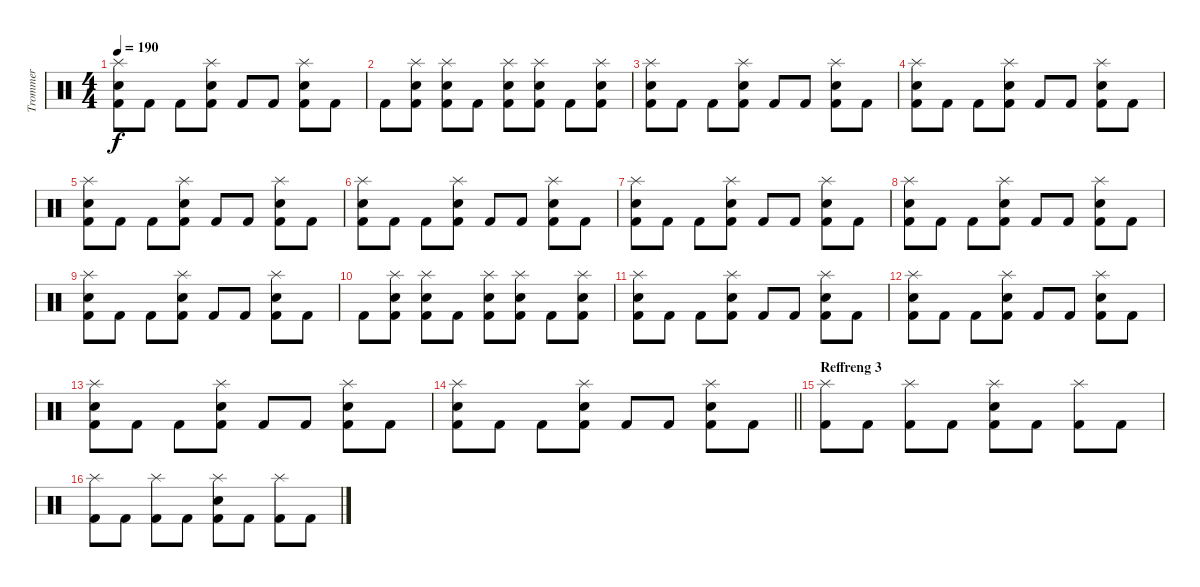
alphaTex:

\track ("Trommer" "Trommer") {instrument percussion}
\staff {score}
\articulation defaults
\ts (4 4)
\tempo 190
\clef neutral
\ks c
("Splash (hit)" "Snare (hit) 2" "Kick (hit) 2").8{dy f} "Kick (hit) 2".8 "Kick (hit) 2".8 ("Splash (hit)" "Snare (hit) 2" "Kick (hit) 2").8 "Kick (hit) 2".8 "Kick (hit) 2".8 ("Splash (hit)" "Snare (hit) 2" "Kick (hit) 2").8 "Kick (hit) 2".8 |
"Kick (hit) 2".8 ("Splash (hit)" "Snare (hit) 2" "Kick (hit) 2").8 ("Splash (hit)" "Snare (hit) 2" "Kick (hit) 2").8 "Kick (hit) 2".8 ("Splash (hit)" "Snare (hit) 2" "Kick (hit) 2").8 ("Splash (hit)" "Snare (hit) 2" "Kick (hit) 2").8 "Kick (hit) 2".8 ("Splash (hit)" "Snare (hit) 2" "Kick (hit) 2").8 |
("Splash (hit)" "Snare (hit) 2" "Kick (hit) 2").8 "Kick (hit) 2".8 "Kick (hit) 2".8 ("Splash (hit)" "Snare (hit) 2" "Kick (hit) 2").8 "Kick (hit) 2".8 "Kick (hit) 2".8 ("Splash (hit)" "Snare (hit) 2" "Kick (hit) 2").8 "Kick (hit) 2".8 |
("Splash (hit)" "Snare (hit) 2" "Kick (hit) 2").8 "Kick (hit) 2".8 "Kick (hit) 2".8 ("Splash (hit)" "Snare (hit) 2" "Kick (hit) 2").8 "Kick (hit) 2".8 "Kick (hit) 2".8 ("Splash (hit)" "Snare (hit) 2" "Kick (hit) 2").8 "Kick (hit) 2".8 |
("Splash (hit)" "Snare (hit) 2" "Kick (hit) 2").8 "Kick (hit) 2".8 "Kick (hit) 2".8 ("Splash (hit)" "Snare (hit) 2" "Kick (hit) 2").8 "Kick (hit) 2".8 "Kick (hit) 2".8 ("Splash (hit)" "Snare (hit) 2" "Kick (hit) 2").8 "Kick (hit) 2".8 |
("Splash (hit)" "Snare (hit) 2" "Kick (hit) 2").8 "Kick (hit) 2".8 "Kick (hit) 2".8 ("Splash (hit)" "Snare (hit) 2" "Kick (hit) 2").8 "Kick (hit) 2".8 "Kick (hit) 2".8 ("Splash (hit)" "Snare (hit) 2" "Kick (hit) 2").8 "Kick (hit) 2".8 |
("Splash (hit)" "Snare (hit) 2" "Kick (hit) 2").8 "Kick (hit) 2".8 "Kick (hit) 2".8 ("Splash (hit)" "Snare (hit) 2" "Kick (hit) 2").8 "Kick (hit) 2".8 "Kick (hit) 2".8 ("Splash (hit)" "Snare (hit) 2" "Kick (hit) 2").8 "Kick (hit) 2".8 |
("Splash (hit)" "Snare (hit) 2" "Kick (hit) 2").8 "Kick (hit) 2".8 "Kick (hit) 2".8 ("Splash (hit)" "Snare (hit) 2" "Kick (hit) 2").8 "Kick (hit) 2".8 "Kick (hit) 2".8 ("Splash (hit)" "Snare (hit) 2" "Kick (hit) 2").8 "Kick (hit) 2".8 |
("Splash (hit)" "Snare (hit) 2" "Kick (hit) 2").8 "Kick (hit) 2".8 "Kick (hit) 2".8 ("Splash (hit)" "Snare (hit) 2" "Kick (hit) 2").8 "Kick (hit) 2".8 "Kick (hit) 2".8 ("Splash (hit)" "Snare (hit) 2" "Kick (hit) 2").8 "Kick (hit) 2".8 |
"Kick (hit) 2".8 ("Splash (hit)" "Snare (hit) 2" "Kick (hit) 2").8 ("Splash (hit)" "Snare (hit) 2" "Kick (hit) 2").8 "Kick (hit) 2".8 ("Splash (hit)" "Snare (hit) 2" "Kick (hit) 2").8 ("Splash (hit)" "Snare (hit) 2" "Kick (hit) 2").8 "Kick (hit) 2".8 ("Splash (hit)" "Snare (hit) 2" "Kick (hit) 2").8 |
("Splash (hit)" "Snare (hit) 2" "Kick (hit) 2").8 "Kick (hit) 2".8 "Kick (hit) 2".8 ("Splash (hit)" "Snare (hit) 2" "Kick (hit) 2").8 "Kick (hit) 2".8 "Kick (hit) 2".8 ("Splash (hit)" "Snare (hit) 2" "Kick (hit) 2").8 "Kick (hit) 2".8 |
("Splash (hit)" "Snare (hit) 2" "Kick (hit) 2").8 "Kick (hit) 2".8 "Kick (hit) 2".8 ("Splash (hit)" "Snare (hit) 2" "Kick (hit) 2").8 "Kick (hit) 2".8 "Kick (hit) 2".8 ("Splash (hit)" "Snare (hit) 2" "Kick (hit) 2").8 "Kick (hit) 2".8 |
("Splash (hit)" "Snare (hit) 2" "Kick (hit) 2").8 "Kick (hit) 2".8 "Kick (hit) 2".8 ("Splash (hit)" "Snare (hit) 2" "Kick (hit) 2").8 "Kick (hit) 2".8 "Kick (hit) 2".8 ("Splash (hit)" "Snare (hit) 2" "Kick (hit) 2").8 "Kick (hit) 2".8 |
\barLineRight lightlight
("Splash (hit)" "Snare (hit) 2" "Kick (hit) 2").8 "Kick (hit) 2".8 "Kick (hit) 2".8 ("Splash (hit)" "Snare (hit) 2" "Kick (hit) 2").8 "Kick (hit) 2".8 "Kick (hit) 2".8 ("Splash (hit)" "Snare (hit) 2" "Kick (hit) 2").8 "Kick (hit) 2".8 |
\section ("" "Reffreng 3")
("Splash (hit)" "Kick (hit) 2").8 "Kick (hit) 2".8 ("Splash (hit)" "Kick (hit) 2").8 "Kick (hit) 2".8 ("Splash (hit)" "Snare (hit) 2" "Kick (hit) 2").8 "Kick (hit) 2".8 ("Splash (hit)" "Kick (hit) 2").8 "Kick (hit) 2".8 |
("Splash (hit)" "Kick (hit) 2").8 "Kick (hit) 2".8 ("Splash (hit)" "Kick (hit) 2").8 "Kick (hit) 2".8 ("Splash (hit)" "Snare (hit) 2" "Kick (hit) 2").8 "Kick (hit) 2".8 ("Splash (hit)" "Kick (hit) 2").8 "Kick (hit) 2".8
